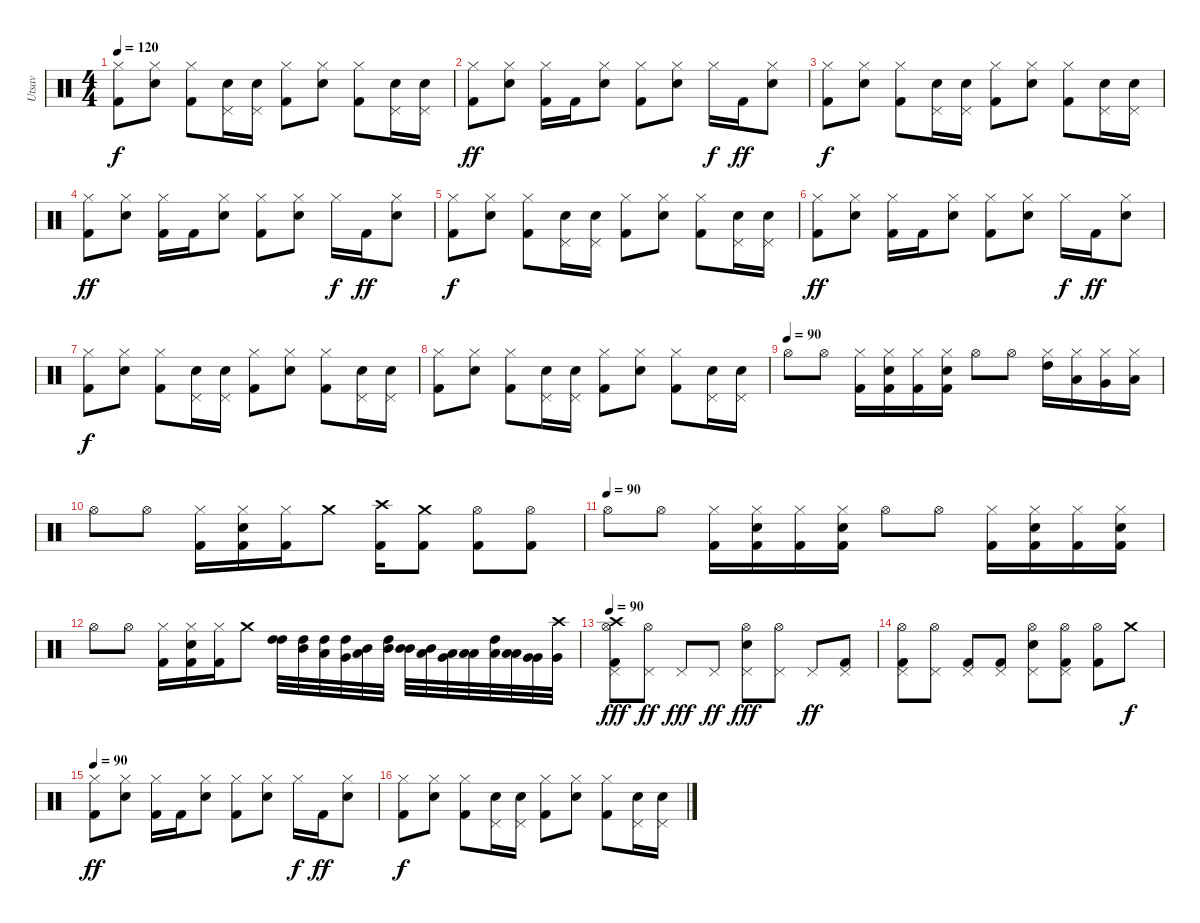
\track ("Utsav" "Utsav") {instrument percussion}
\staff {score}
\articulation defaults
\ts (4 4)
\tempo 120
\clef neutral
\ks c
("Hi-Hat (closed)" "Kick (hit) 2").8{dy f} ("Hi-Hat (closed)" "Snare (hit) 2").8 ("Hi-Hat (closed)" "Kick (hit) 2").8 ("Pedal Hi-Hat (hit)" "Snare (hit) 2").16 ("Pedal Hi-Hat (hit)" "Snare (hit) 2").16 ("Hi-Hat (closed)" "Kick (hit) 2").8 ("Hi-Hat (closed)" "Snare (hit) 2").8 ("Hi-Hat (closed)" "Kick (hit) 2").8 ("Pedal Hi-Hat (hit)" "Snare (hit) 2").16 ("Pedal Hi-Hat (hit)" "Snare (hit) 2").16 |
("Hi-Hat (closed)" "Kick (hit) 2").8{dy ff} ("Hi-Hat (closed)" "Snare (hit) 2").8 ("Hi-Hat (closed)" "Kick (hit) 2").16 "Kick (hit) 2".16 ("Hi-Hat (closed)" "Snare (hit) 2").8 ("Hi-Hat (closed)" "Kick (hit) 2").8 ("Hi-Hat (closed)" "Snare (hit) 2").8 "Hi-Hat (closed)".16{dy f} "Kick (hit) 2".16{dy ff} ("Hi-Hat (closed)" "Snare (hit) 2").8 |
("Hi-Hat (closed)" "Kick (hit) 2").8{dy f} ("Hi-Hat (closed)" "Snare (hit) 2").8 ("Hi-Hat (closed)" "Kick (hit) 2").8 ("Pedal Hi-Hat (hit)" "Snare (hit) 2").16 ("Pedal Hi-Hat (hit)" "Snare (hit) 2").16 ("Hi-Hat (closed)" "Kick (hit) 2").8 ("Hi-Hat (closed)" "Snare (hit) 2").8 ("Hi-Hat (closed)" "Kick (hit) 2").8 ("Pedal Hi-Hat (hit)" "Snare (hit) 2").16 ("Pedal Hi-Hat (hit)" "Snare (hit) 2").16 |
("Hi-Hat (closed)" "Kick (hit) 2").8{dy ff} ("Hi-Hat (closed)" "Snare (hit) 2").8 ("Hi-Hat (closed)" "Kick (hit) 2").16 "Kick (hit) 2".16 ("Hi-Hat (closed)" "Snare (hit) 2").8 ("Hi-Hat (closed)" "Kick (hit) 2").8 ("Hi-Hat (closed)" "Snare (hit) 2").8 "Hi-Hat (closed)".16{dy f} "Kick (hit) 2".16{dy ff} ("Hi-Hat (closed)" "Snare (hit) 2").8 |
("Hi-Hat (closed)" "Kick (hit) 2").8{dy f} ("Hi-Hat (closed)" "Snare (hit) 2").8 ("Hi-Hat (closed)" "Kick (hit) 2").8 ("Pedal Hi-Hat (hit)" "Snare (hit) 2").16 ("Pedal Hi-Hat (hit)" "Snare (hit) 2").16 ("Hi-Hat (closed)" "Kick (hit) 2").8 ("Hi-Hat (closed)" "Snare (hit) 2").8 ("Hi-Hat (closed)" "Kick (hit) 2").8 ("Pedal Hi-Hat (hit)" "Snare (hit) 2").16 ("Pedal Hi-Hat (hit)" "Snare (hit) 2").16 |
("Hi-Hat (closed)" "Kick (hit) 2").8{dy ff} ("Hi-Hat (closed)" "Snare (hit) 2").8 ("Hi-Hat (closed)" "Kick (hit) 2").16 "Kick (hit) 2".16 ("Hi-Hat (closed)" "Snare (hit) 2").8 ("Hi-Hat (closed)" "Kick (hit) 2").8 ("Hi-Hat (closed)" "Snare (hit) 2").8 "Hi-Hat (closed)".16{dy f} "Kick (hit) 2".16{dy ff} ("Hi-Hat (closed)" "Snare (hit) 2").8 |
("Hi-Hat (closed)" "Kick (hit) 2").8{dy f} ("Hi-Hat (closed)" "Snare (hit) 2").8 ("Hi-Hat (closed)" "Kick (hit) 2").8 ("Pedal Hi-Hat (hit)" "Snare (hit) 2").16 ("Pedal Hi-Hat (hit)" "Snare (hit) 2").16 ("Hi-Hat (closed)" "Kick (hit) 2").8 ("Hi-Hat (closed)" "Snare (hit) 2").8 ("Hi-Hat (closed)" "Kick (hit) 2").8 ("Pedal Hi-Hat (hit)" "Snare (hit) 2").16 ("Pedal Hi-Hat (hit)" "Snare (hit) 2").16 |
("Hi-Hat (closed)" "Kick (hit) 2").8 ("Hi-Hat (closed)" "Snare (hit) 2").8 ("Hi-Hat (closed)" "Kick (hit) 2").8 ("Pedal Hi-Hat (hit)" "Snare (hit) 2").16 ("Pedal Hi-Hat (hit)" "Snare (hit) 2").16 ("Hi-Hat (closed)" "Kick (hit) 2").8 ("Hi-Hat (closed)" "Snare (hit) 2").8 ("Hi-Hat (closed)" "Kick (hit) 2").8 ("Pedal Hi-Hat (hit)" "Snare (hit) 2").16 ("Pedal Hi-Hat (hit)" "Snare (hit) 2").16 |
\tempo (90)
"Hi-Hat (open)".8 "Hi-Hat (open)".8 ("Hi-Hat (closed)" "Kick (hit) 2").16 ("Hi-Hat (closed)" "Snare (hit) 2" "Kick (hit) 2").16 ("Hi-Hat (closed)" "Kick (hit) 2").16 ("Hi-Hat (closed)" "Snare (hit) 2" "Kick (hit) 2").16 "Hi-Hat (open)".8 "Hi-Hat (open)".8 ("Hi-Hat (closed)" "High Tom (hit)").16 ("Hi-Hat (closed)" "Low Tom (hit)").16 ("Hi-Hat (closed)" "Very Low Tom (hit)").16 ("Hi-Hat (closed)" "Low Floor Tom (hit)").16 |
"Hi-Hat (open)".8 "Hi-Hat (open)".8 ("Hi-Hat (closed)" "Kick (hit) 2").16 ("Hi-Hat (closed)" "Snare (hit) 2" "Kick (hit) 2").16 ("Hi-Hat (closed)" "Kick (hit) 2").16 "Crash medium (hit)".8 ("Crash high (hit)" "Kick (hit) 2").16 ("Crash medium (hit)" "Kick (hit) 2").8 ("Hi-Hat (open)" "Kick (hit) 2").8 ("Hi-Hat (open)" "Kick (hit) 2").8 |
\tempo (90)
"Hi-Hat (open)".8 "Hi-Hat (open)".8 ("Hi-Hat (closed)" "Kick (hit) 2").16 ("Hi-Hat (closed)" "Snare (hit) 2" "Kick (hit) 2").16 ("Hi-Hat (closed)" "Kick (hit) 2").16 ("Hi-Hat (closed)" "Snare (hit) 2" "Kick (hit) 2").16 "Hi-Hat (open)".8 "Hi-Hat (open)".8 ("Hi-Hat (closed)" "Kick (hit) 2").16 ("Hi-Hat (closed)" "Snare (hit) 2" "Kick (hit) 2").16 ("Hi-Hat (closed)" "Kick (hit) 2").16 ("Hi-Hat (closed)" "Snare (hit) 2" "Kick (hit) 2").16 |
"Hi-Hat (open)".8 "Hi-Hat (open)".8 ("Hi-Hat (closed)" "Kick (hit) 2").16 ("Hi-Hat (closed)" "Snare (hit) 2" "Kick (hit) 2").16 ("Hi-Hat (closed)" "Kick (hit) 2").16 "Crash medium (hit)".8 ("High Tom (hit)" "High Tom (hit)").32 ("Mid Tom (hit)" "High Tom (hit)").32 ("Low Tom (hit)" "High Tom (hit)").32 ("Very Low Tom (hit)" "High Tom (hit)").32 ("Low Floor Tom (hit)" "Mid Tom (hit)").32 ("High Tom (hit)" "Mid Tom (hit)").32 ("Mid Tom (hit)" "Mid Tom (hit)").32 ("Low Tom (hit)" "Mid Tom (hit)").32 ("Very Low Tom (hit)" "Low Tom (hit)").32 ("Low Floor Tom (hit)" "Low Tom (hit)").32 ("High Tom (hit)" "Low Tom (hit)").32 ("Low Tom (hit)" "Low Tom (hit)").32 ("Very Low Tom (hit)" "Very Low Tom (hit)").32 ("Crash high (hit)" "Very Low Tom (hit)").32 |
\tempo 90
("Kick (hit) 2" "Crash high (hit)" "Pedal Hi-Hat (hit)" "Hi-Hat (open)").8{dy fff} ("Pedal Hi-Hat (hit)" "Hi-Hat (open)").8{dy ff} "Pedal Hi-Hat (hit)".8{dy fff} "Pedal Hi-Hat (hit)".8{dy ff} ("Snare (hit) 2" "Pedal Hi-Hat (hit)" "Hi-Hat (open)").8{dy fff} ("Pedal Hi-Hat (hit)" "Hi-Hat (open)").8 "Pedal Hi-Hat (hit)".8{dy ff} ("Kick (hit) 2" "Pedal Hi-Hat (hit)").8 |
("Kick (hit) 2" "Pedal Hi-Hat (hit)" "Hi-Hat (open)").8 ("Pedal Hi-Hat (hit)" "Hi-Hat (open)").8 ("Kick (hit) 2" "Pedal Hi-Hat (hit)").8 ("Kick (hit) 2" "Pedal Hi-Hat (hit)").8 ("Pedal Hi-Hat (hit)" "Snare (hit) 2" "Hi-Hat (open)").8 ("Kick (hit) 2" "Pedal Hi-Hat (hit)" "Hi-Hat (open)").8 ("Kick (hit) 2" "Hi-Hat (open)").8 "Crash medium (hit)".8{dy f} |
\tempo 90
("Hi-Hat (closed)" "Kick (hit) 2").8{dy ff} ("Hi-Hat (closed)" "Snare (hit) 2").8 ("Hi-Hat (closed)" "Kick (hit) 2").16 "Kick (hit) 2".16 ("Hi-Hat (closed)" "Snare (hit) 2").8 ("Hi-Hat (closed)" "Kick (hit) 2").8 ("Hi-Hat (closed)" "Snare (hit) 2").8 "Hi-Hat (closed)".16{dy f} "Kick (hit) 2".16{dy ff} ("Hi-Hat (closed)" "Snare (hit) 2").8 |
("Hi-Hat (closed)" "Kick (hit) 2").8{dy f} ("Hi-Hat (closed)" "Snare (hit) 2").8 ("Hi-Hat (closed)" "Kick (hit) 2").8 ("Pedal Hi-Hat (hit)" "Snare (hit) 2").16 ("Pedal Hi-Hat (hit)" "Snare (hit) 2").16 ("Hi-Hat (closed)" "Kick (hit) 2").8 ("Hi-Hat (closed)" "Snare (hit) 2").8 ("Hi-Hat (closed)" "Kick (hit) 2").8 ("Pedal Hi-Hat (hit)" "Snare (hit) 2").16 ("Pedal Hi-Hat (hit)" "Snare (hit) 2").16
